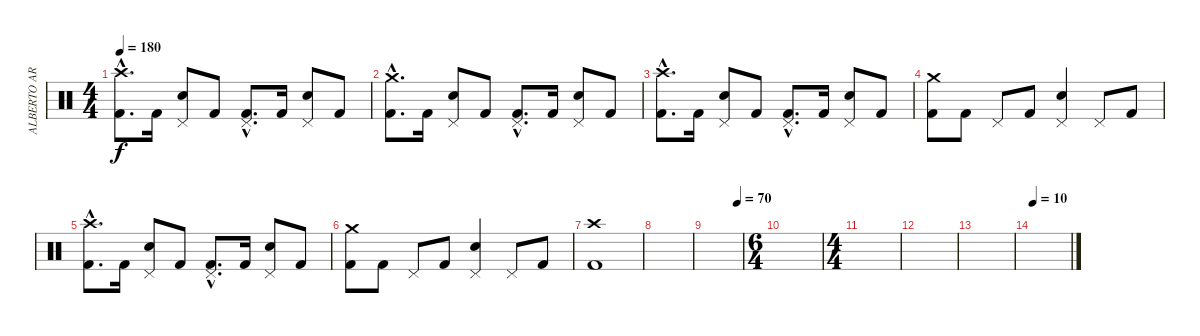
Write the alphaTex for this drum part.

\track ("ALBERTO ARDINES" "ALBERTO AR") {instrument percussion}
\staff {score}
\articulation defaults
\ts (4 4)
\tempo 180
\clef neutral
\ks c
("Crash high (hit)"{hac} "Kick (hit) 2"{hac}).8{d dy f} "Kick (hit) 2".16 ("Pedal Hi-Hat (hit)" "Electric Snare (hit)").8 "Kick (hit) 2".8 ("Pedal Hi-Hat (hit)"{hac} "Kick (hit) 2"{hac}).8{d} "Kick (hit) 2".16 ("Pedal Hi-Hat (hit)" "Electric Snare (hit)").8 "Kick (hit) 2".8 |
("Crash medium (hit)"{hac} "Kick (hit) 2"{hac}).8{d} "Kick (hit) 2".16 ("Pedal Hi-Hat (hit)" "Electric Snare (hit)").8 "Kick (hit) 2".8 ("Pedal Hi-Hat (hit)"{hac} "Kick (hit) 2"{hac}).8{d} "Kick (hit) 2".16 ("Pedal Hi-Hat (hit)" "Electric Snare (hit)").8 "Kick (hit) 2".8 |
("Crash high (hit)"{hac} "Kick (hit) 2"{hac}).8{d} "Kick (hit) 2".16 ("Pedal Hi-Hat (hit)" "Electric Snare (hit)").8 "Kick (hit) 2".8 ("Pedal Hi-Hat (hit)"{hac} "Kick (hit) 2"{hac}).8{d} "Kick (hit) 2".16 ("Pedal Hi-Hat (hit)" "Electric Snare (hit)").8 "Kick (hit) 2".8 |
("Crash medium (hit)" "Kick (hit) 2").8 "Kick (hit) 2".8 "Pedal Hi-Hat (hit)".8 "Kick (hit) 2".8 ("Pedal Hi-Hat (hit)" "Electric Snare (hit)").4 "Pedal Hi-Hat (hit)".8 "Kick (hit) 2".8 |
("Crash high (hit)"{hac} "Kick (hit) 2"{hac}).8{d} "Kick (hit) 2".16 ("Pedal Hi-Hat (hit)" "Electric Snare (hit)").8 "Kick (hit) 2".8 ("Pedal Hi-Hat (hit)"{hac} "Kick (hit) 2"{hac}).8{d} "Kick (hit) 2".16 ("Pedal Hi-Hat (hit)" "Electric Snare (hit)").8 "Kick (hit) 2".8 |
("Crash medium (hit)" "Kick (hit) 2").8 "Kick (hit) 2".8 "Pedal Hi-Hat (hit)".8 "Kick (hit) 2".8 ("Pedal Hi-Hat (hit)" "Electric Snare (hit)").4 "Pedal Hi-Hat (hit)".8 "Kick (hit) 2".8 |
("Crash high (hit)" "Kick (hit) 2").1 |
|
\tempo (70 0.875)
|
\ts (6 4)
|
\ts (4 4)
|
|
|
\tempo 10
